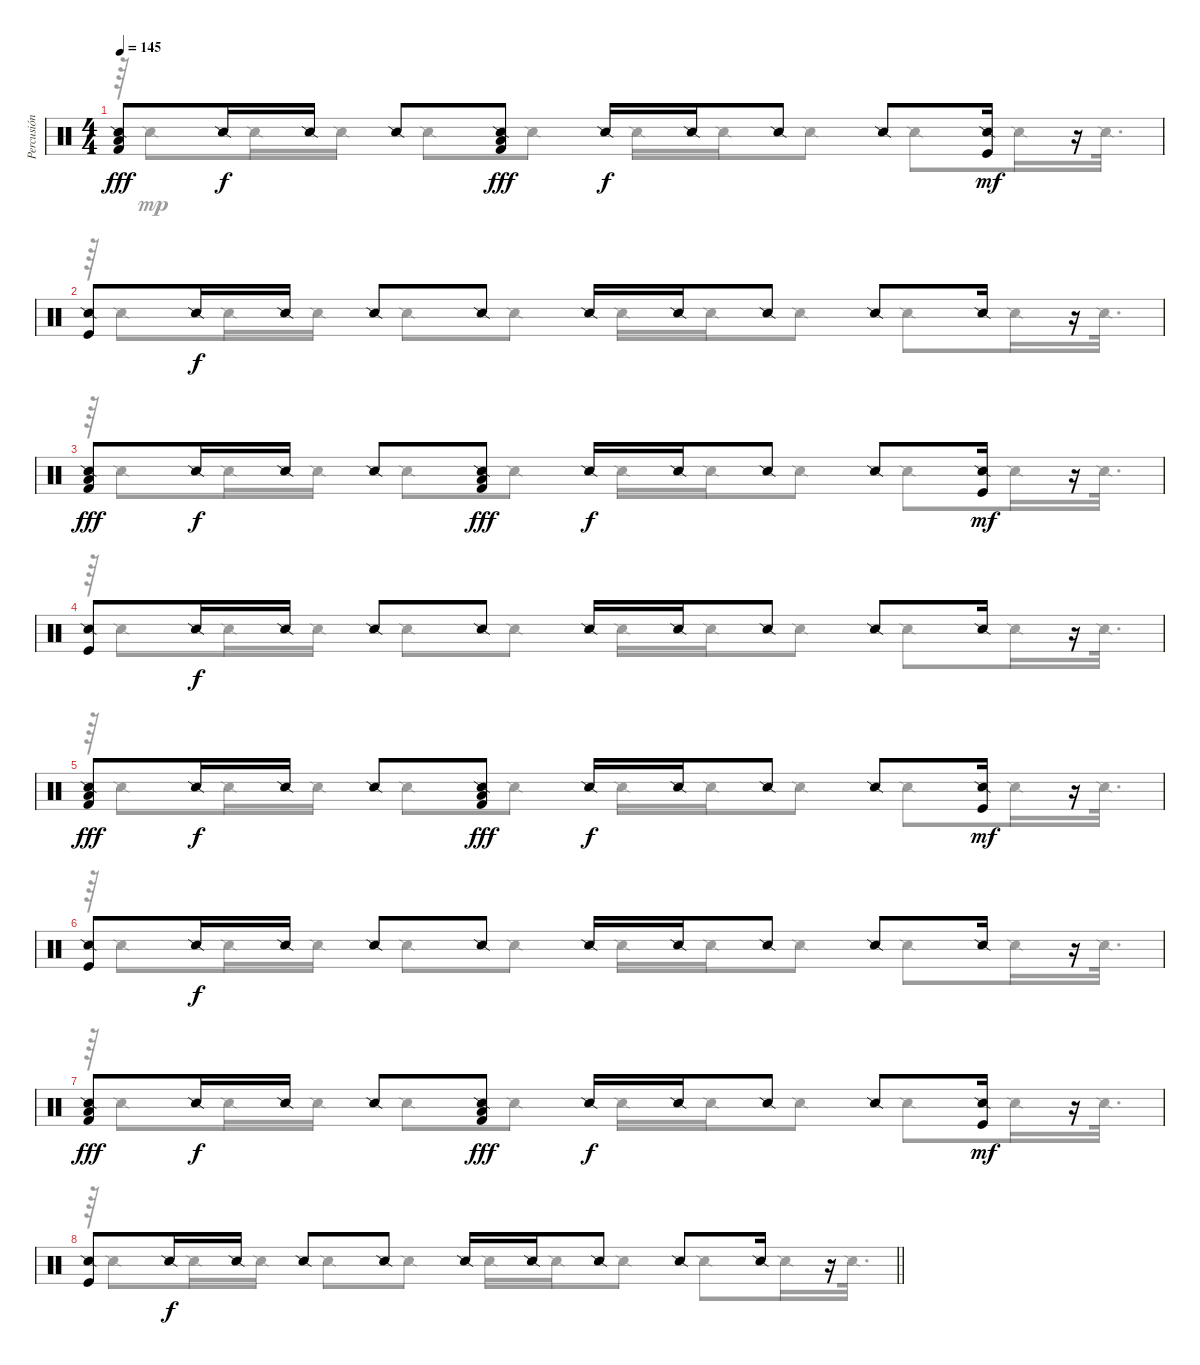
\track ("Percusión" "Percusión") {instrument percussion}
\staff {score}
\articulation defaults
\voice
\ts (4 4)
\tempo 145
\clef neutral
\ks c
("Snare (side stick) 2" "Low Floor Tom (hit)" "Kick (hit) 2").8{dy fff} "Snare (side stick) 2".16{dy f} "Snare (side stick) 2".16 "Snare (side stick) 2".8 ("Snare (side stick) 2" "Low Floor Tom (hit)" "Kick (hit) 2").8{dy fff} "Snare (side stick) 2".16{dy f} "Snare (side stick) 2".16 "Snare (side stick) 2".8 "Snare (side stick) 2".8 ("Snare (side stick) 2" "Kick (hit)").16{dy mf} r.16 |
("Snare (side stick) 2" "Kick (hit)").8 "Snare (side stick) 2".16{dy f} "Snare (side stick) 2".16 "Snare (side stick) 2".8 "Snare (side stick) 2".8 "Snare (side stick) 2".16 "Snare (side stick) 2".16 "Snare (side stick) 2".8 "Snare (side stick) 2".8 "Snare (side stick) 2".16 r.16 |
("Snare (side stick) 2" "Low Floor Tom (hit)" "Kick (hit) 2").8{dy fff} "Snare (side stick) 2".16{dy f} "Snare (side stick) 2".16 "Snare (side stick) 2".8 ("Snare (side stick) 2" "Low Floor Tom (hit)" "Kick (hit) 2").8{dy fff} "Snare (side stick) 2".16{dy f} "Snare (side stick) 2".16 "Snare (side stick) 2".8 "Snare (side stick) 2".8 ("Snare (side stick) 2" "Kick (hit)").16{dy mf} r.16 |
("Snare (side stick) 2" "Kick (hit)").8 "Snare (side stick) 2".16{dy f} "Snare (side stick) 2".16 "Snare (side stick) 2".8 "Snare (side stick) 2".8 "Snare (side stick) 2".16 "Snare (side stick) 2".16 "Snare (side stick) 2".8 "Snare (side stick) 2".8 "Snare (side stick) 2".16 r.16 |
("Snare (side stick) 2" "Low Floor Tom (hit)" "Kick (hit) 2").8{dy fff} "Snare (side stick) 2".16{dy f} "Snare (side stick) 2".16 "Snare (side stick) 2".8 ("Snare (side stick) 2" "Low Floor Tom (hit)" "Kick (hit) 2").8{dy fff} "Snare (side stick) 2".16{dy f} "Snare (side stick) 2".16 "Snare (side stick) 2".8 "Snare (side stick) 2".8 ("Snare (side stick) 2" "Kick (hit)").16{dy mf} r.16 |
("Snare (side stick) 2" "Kick (hit)").8 "Snare (side stick) 2".16{dy f} "Snare (side stick) 2".16 "Snare (side stick) 2".8 "Snare (side stick) 2".8 "Snare (side stick) 2".16 "Snare (side stick) 2".16 "Snare (side stick) 2".8 "Snare (side stick) 2".8 "Snare (side stick) 2".16 r.16 |
("Snare (side stick) 2" "Low Floor Tom (hit)" "Kick (hit) 2").8{dy fff} "Snare (side stick) 2".16{dy f} "Snare (side stick) 2".16 "Snare (side stick) 2".8 ("Snare (side stick) 2" "Low Floor Tom (hit)" "Kick (hit) 2").8{dy fff} "Snare (side stick) 2".16{dy f} "Snare (side stick) 2".16 "Snare (side stick) 2".8 "Snare (side stick) 2".8 ("Snare (side stick) 2" "Kick (hit)").16{dy mf} r.16 |
\barLineRight lightlight
("Snare (side stick) 2" "Kick (hit)").8 "Snare (side stick) 2".16{dy f} "Snare (side stick) 2".16 "Snare (side stick) 2".8 "Snare (side stick) 2".8 "Snare (side stick) 2".16 "Snare (side stick) 2".16 "Snare (side stick) 2".8 "Snare (side stick) 2".8 "Snare (side stick) 2".16 r.16
\voice
\clef neutral
\ottava regular
\simile none
\ks c
r.64{dy mp} "Snare (side stick) 2".8 "Snare (side stick) 2".16 "Snare (side stick) 2".16 "Snare (side stick) 2".8 "Snare (side stick) 2".8 "Snare (side stick) 2".16 "Snare (side stick) 2".16 "Snare (side stick) 2".8 "Snare (side stick) 2".8 "Snare (side stick) 2".16 "Snare (side stick) 2".32{d} |
r.64 "Snare (side stick) 2".8 "Snare (side stick) 2".16 "Snare (side stick) 2".16 "Snare (side stick) 2".8 "Snare (side stick) 2".8 "Snare (side stick) 2".16 "Snare (side stick) 2".16 "Snare (side stick) 2".8 "Snare (side stick) 2".8 "Snare (side stick) 2".16 "Snare (side stick) 2".32{d} |
r.64 "Snare (side stick) 2".8 "Snare (side stick) 2".16 "Snare (side stick) 2".16 "Snare (side stick) 2".8 "Snare (side stick) 2".8 "Snare (side stick) 2".16 "Snare (side stick) 2".16 "Snare (side stick) 2".8 "Snare (side stick) 2".8 "Snare (side stick) 2".16 "Snare (side stick) 2".32{d} |
r.64 "Snare (side stick) 2".8 "Snare (side stick) 2".16 "Snare (side stick) 2".16 "Snare (side stick) 2".8 "Snare (side stick) 2".8 "Snare (side stick) 2".16 "Snare (side stick) 2".16 "Snare (side stick) 2".8 "Snare (side stick) 2".8 "Snare (side stick) 2".16 "Snare (side stick) 2".32{d} |
r.64 "Snare (side stick) 2".8 "Snare (side stick) 2".16 "Snare (side stick) 2".16 "Snare (side stick) 2".8 "Snare (side stick) 2".8 "Snare (side stick) 2".16 "Snare (side stick) 2".16 "Snare (side stick) 2".8 "Snare (side stick) 2".8 "Snare (side stick) 2".16 "Snare (side stick) 2".32{d} |
r.64 "Snare (side stick) 2".8 "Snare (side stick) 2".16 "Snare (side stick) 2".16 "Snare (side stick) 2".8 "Snare (side stick) 2".8 "Snare (side stick) 2".16 "Snare (side stick) 2".16 "Snare (side stick) 2".8 "Snare (side stick) 2".8 "Snare (side stick) 2".16 "Snare (side stick) 2".32{d} |
r.64 "Snare (side stick) 2".8 "Snare (side stick) 2".16 "Snare (side stick) 2".16 "Snare (side stick) 2".8 "Snare (side stick) 2".8 "Snare (side stick) 2".16 "Snare (side stick) 2".16 "Snare (side stick) 2".8 "Snare (side stick) 2".8 "Snare (side stick) 2".16 "Snare (side stick) 2".32{d} |
\barLineRight lightlight
r.64 "Snare (side stick) 2".8 "Snare (side stick) 2".16 "Snare (side stick) 2".16 "Snare (side stick) 2".8 "Snare (side stick) 2".8 "Snare (side stick) 2".16 "Snare (side stick) 2".16 "Snare (side stick) 2".8 "Snare (side stick) 2".8 "Snare (side stick) 2".16 "Snare (side stick) 2".32{d}
